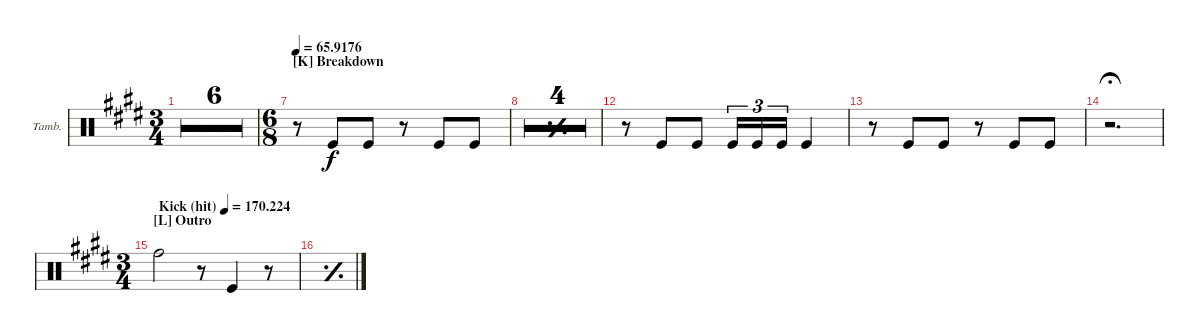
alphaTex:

\defaultSystemsLayout 4
\bracketExtendMode groupsimilarinstruments
\firstSystemTrackNameOrientation horizontal
\otherSystemsTrackNameOrientation horizontal
\track ("Tambourine" "Tamb.") {multiBarRest instrument percussion}
\staff {score}
\articulation defaults
\ts (3 4)
\tempo
165.176
\accidentals auto
\clef neutral
\ottava regular
\simile firstofdouble
\ks e
|
\simile secondofdouble
|
\simile firstofdouble
|
\simile secondofdouble
|
\simile firstofdouble
|
\simile secondofdouble
|
\ts (6 8)
\section ("K" "Breakdown")
\tempo
65.9176
\simile none
r.8 "Kick (hit)".8 "Kick (hit)".8 r.8 "Kick (hit)".8 "Kick (hit)".8 |
\simile simple
|
|
|
|
\simile none
r.8 "Kick (hit)".8 "Kick (hit)".8 "Kick (hit)".16{tu (3 2)} "Kick (hit)".16{tu (3 2)} "Kick (hit)".16{tu (3 2)} "Kick (hit)".4 |
r.8 "Kick (hit)".8 "Kick (hit)".8 r.8 "Kick (hit)".8 "Kick (hit)".8 |
r.2{d fermata (medium 0.5)} |
\ts (3 4)
\section ("L" "Outro")
\tempo
170.224 "Kick (hit)".4 r.8 "Kick (hit)".4 r.8 |
\simile simple
